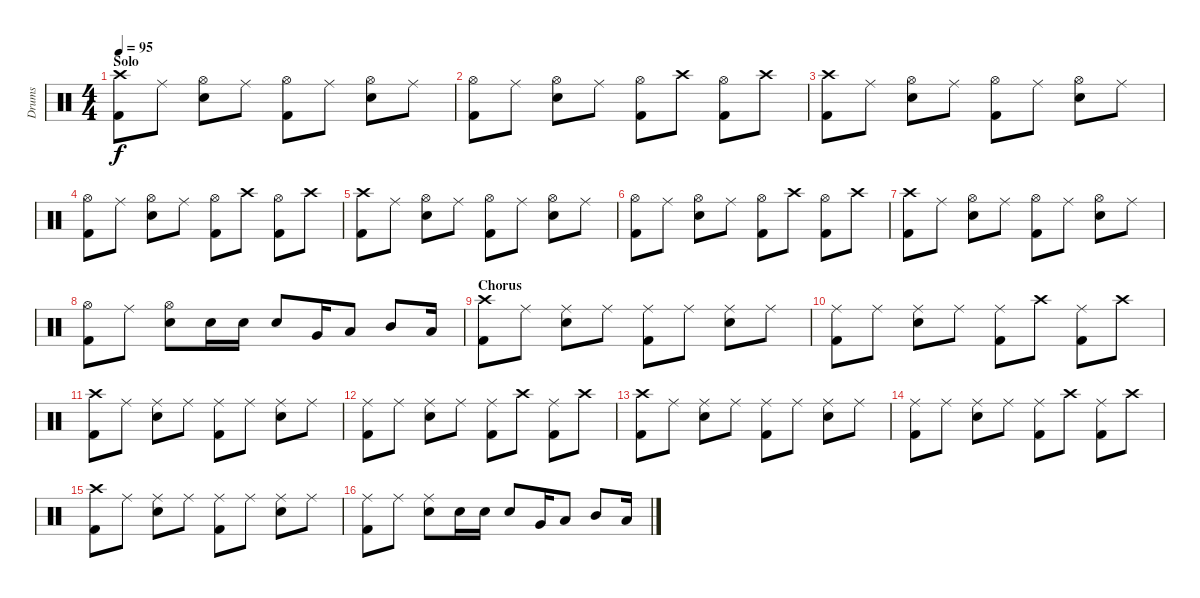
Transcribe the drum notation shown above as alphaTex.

\track ("Drums" "Drums") {instrument percussion}
\staff {score}
\articulation defaults
\ts (4 4)
\section ("" "Solo")
\tempo 95
\clef neutral
\ks c
("Kick (hit) 2" "Crash high (hit)").8{dy f} "Ride (middle)".8 ("Snare (hit) 2" "Hi-Hat (open)").8 "Ride (middle)".8 ("Kick (hit) 2" "Hi-Hat (open)").8 "Ride (middle)".8 ("Snare (hit) 2" "Hi-Hat (open)").8 "Ride (middle)".8 |
("Kick (hit) 2" "Hi-Hat (open)").8 "Ride (middle)".8 ("Snare (hit) 2" "Hi-Hat (open)").8 "Ride (middle)".8 ("Kick (hit) 2" "Hi-Hat (open)").8 "Crash high (hit)".8 ("Kick (hit) 2" "Hi-Hat (open)").8 "Crash high (hit)".8 |
("Kick (hit) 2" "Crash high (hit)").8 "Ride (middle)".8 ("Snare (hit) 2" "Hi-Hat (open)").8 "Ride (middle)".8 ("Kick (hit) 2" "Hi-Hat (open)").8 "Ride (middle)".8 ("Snare (hit) 2" "Hi-Hat (open)").8 "Ride (middle)".8 |
("Kick (hit) 2" "Hi-Hat (open)").8 "Ride (middle)".8 ("Snare (hit) 2" "Hi-Hat (open)").8 "Ride (middle)".8 ("Kick (hit) 2" "Hi-Hat (open)").8 "Crash high (hit)".8 ("Kick (hit) 2" "Hi-Hat (open)").8 "Crash high (hit)".8 |
("Kick (hit) 2" "Crash high (hit)").8 "Ride (middle)".8 ("Snare (hit) 2" "Hi-Hat (open)").8 "Ride (middle)".8 ("Kick (hit) 2" "Hi-Hat (open)").8 "Ride (middle)".8 ("Snare (hit) 2" "Hi-Hat (open)").8 "Ride (middle)".8 |
("Kick (hit) 2" "Hi-Hat (open)").8 "Ride (middle)".8 ("Snare (hit) 2" "Hi-Hat (open)").8 "Ride (middle)".8 ("Kick (hit) 2" "Hi-Hat (open)").8 "Crash high (hit)".8 ("Kick (hit) 2" "Hi-Hat (open)").8 "Crash high (hit)".8 |
("Kick (hit) 2" "Crash high (hit)").8 "Ride (middle)".8 ("Snare (hit) 2" "Hi-Hat (open)").8 "Ride (middle)".8 ("Kick (hit) 2" "Hi-Hat (open)").8 "Ride (middle)".8 ("Snare (hit) 2" "Hi-Hat (open)").8 "Ride (middle)".8 |
("Kick (hit) 2" "Hi-Hat (open)").8 "Ride (middle)".8 ("Snare (hit) 2" "Hi-Hat (open)").8 "Snare (hit) 2".16 "Snare (hit) 2".16 "Snare (hit) 2".8 "Very Low Tom (hit)".16 "Low Tom (hit)".8 "Mid Tom (hit)".8 "Low Tom (hit)".16 |
\section ("" "Chorus")
("Kick (hit) 2" "Crash high (hit)").8 "Ride (middle)".8 ("Snare (hit) 2" "Ride (middle)").8 "Ride (middle)".8 ("Kick (hit) 2" "Ride (middle)").8 "Ride (middle)".8 ("Snare (hit) 2" "Ride (middle)").8 "Ride (middle)".8 |
("Kick (hit) 2" "Ride (middle)").8 "Ride (middle)".8 ("Snare (hit) 2" "Ride (middle)").8 "Ride (middle)".8 ("Kick (hit) 2" "Ride (middle)").8 "Crash high (hit)".8 ("Kick (hit) 2" "Ride (middle)").8 "Crash high (hit)".8 |
("Kick (hit) 2" "Crash high (hit)").8 "Ride (middle)".8 ("Snare (hit) 2" "Ride (middle)").8 "Ride (middle)".8 ("Kick (hit) 2" "Ride (middle)").8 "Ride (middle)".8 ("Snare (hit) 2" "Ride (middle)").8 "Ride (middle)".8 |
("Kick (hit) 2" "Ride (middle)").8 "Ride (middle)".8 ("Snare (hit) 2" "Ride (middle)").8 "Ride (middle)".8 ("Kick (hit) 2" "Ride (middle)").8 "Crash high (hit)".8 ("Kick (hit) 2" "Ride (middle)").8 "Crash high (hit)".8 |
("Kick (hit) 2" "Crash high (hit)").8 "Ride (middle)".8 ("Snare (hit) 2" "Ride (middle)").8 "Ride (middle)".8 ("Kick (hit) 2" "Ride (middle)").8 "Ride (middle)".8 ("Snare (hit) 2" "Ride (middle)").8 "Ride (middle)".8 |
("Kick (hit) 2" "Ride (middle)").8 "Ride (middle)".8 ("Snare (hit) 2" "Ride (middle)").8 "Ride (middle)".8 ("Kick (hit) 2" "Ride (middle)").8 "Crash high (hit)".8 ("Kick (hit) 2" "Ride (middle)").8 "Crash high (hit)".8 |
("Kick (hit) 2" "Crash high (hit)").8 "Ride (middle)".8 ("Snare (hit) 2" "Ride (middle)").8 "Ride (middle)".8 ("Kick (hit) 2" "Ride (middle)").8 "Ride (middle)".8 ("Snare (hit) 2" "Ride (middle)").8 "Ride (middle)".8 |
("Kick (hit) 2" "Ride (middle)").8 "Ride (middle)".8 ("Snare (hit) 2" "Ride (middle)").8 "Snare (hit) 2".16 "Snare (hit) 2".16 "Snare (hit) 2".8 "Very Low Tom (hit)".16 "Low Tom (hit)".8 "Mid Tom (hit)".8 "Low Tom (hit)".16
